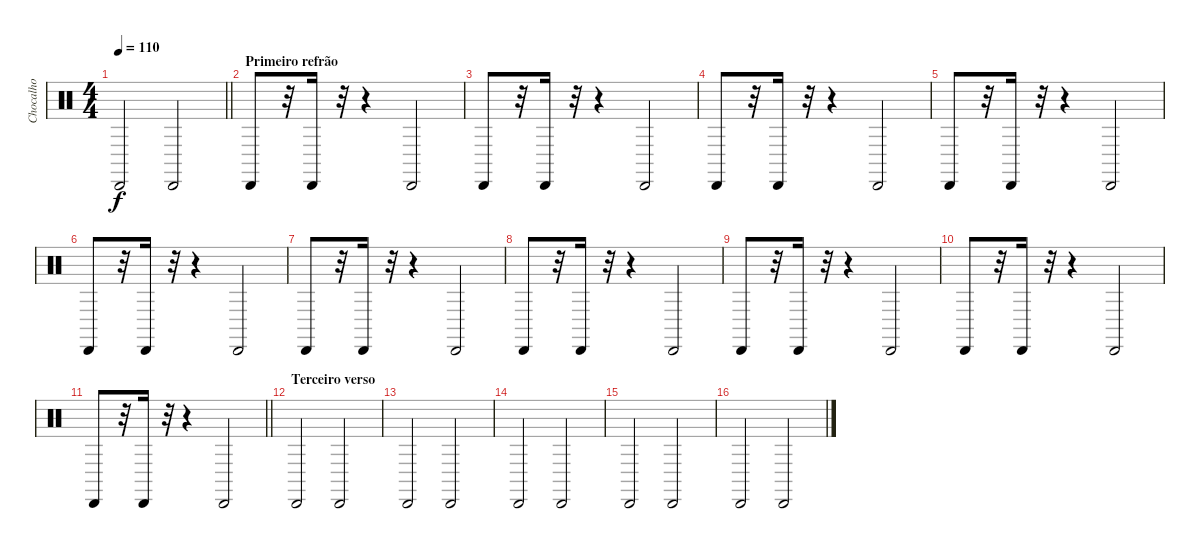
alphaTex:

\track ("Chocalho" "Chocalho") {instrument percussion}
\staff {score}
\articulation defaults
\ts (4 4)
\tempo 110
\clef neutral
\barLineRight lightlight
\ks c "Cabasa (hit)".2{dy f} "Cabasa (hit)".2
|
\section ("" "Primeiro refrão")
"Cabasa (hit)".8 r.32 "Cabasa (hit)".16 r.32 r.4 "Cabasa (hit)".2 |
"Cabasa (hit)".8 r.32 "Cabasa (hit)".16 r.32 r.4 "Cabasa (hit)".2 |
"Cabasa (hit)".8 r.32 "Cabasa (hit)".16 r.32 r.4 "Cabasa (hit)".2 |
"Cabasa (hit)".8 r.32 "Cabasa (hit)".16 r.32 r.4 "Cabasa (hit)".2 |
"Cabasa (hit)".8 r.32 "Cabasa (hit)".16 r.32 r.4 "Cabasa (hit)".2 |
"Cabasa (hit)".8 r.32 "Cabasa (hit)".16 r.32 r.4 "Cabasa (hit)".2 |
"Cabasa (hit)".8 r.32 "Cabasa (hit)".16 r.32 r.4 "Cabasa (hit)".2 |
"Cabasa (hit)".8 r.32 "Cabasa (hit)".16 r.32 r.4 "Cabasa (hit)".2 |
"Cabasa (hit)".8 r.32 "Cabasa (hit)".16 r.32 r.4 "Cabasa (hit)".2 |
\barLineRight lightlight "Cabasa (hit)".8
r.32 "Cabasa (hit)".16 r.32 r.4 "Cabasa (hit)".2 |
\section ("" "Terceiro verso")
"Cabasa (hit)".2 "Cabasa (hit)".2 |
"Cabasa (hit)".2 "Cabasa (hit)".2 |
"Cabasa (hit)".2 "Cabasa (hit)".2 |
"Cabasa (hit)".2 "Cabasa (hit)".2 |
"Cabasa (hit)".2 "Cabasa (hit)".2
